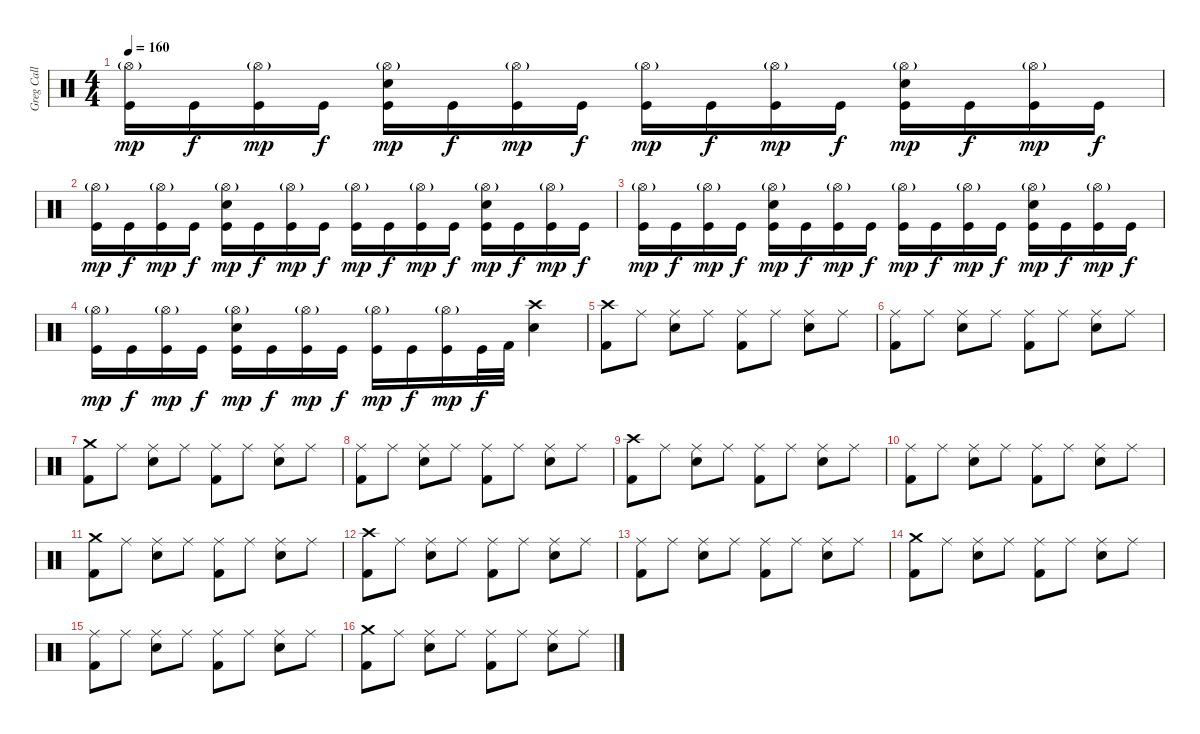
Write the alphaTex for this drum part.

\track ("Greg Call (Drums)" "Greg Call ") {instrument percussion}
\staff {score}
\articulation defaults
\ts (4 4)
\tempo 160
\clef neutral
\ks c
("Hi-Hat (open)"{g} "Kick (hit)").16{dy mp} "Kick (hit)".16{dy f} ("Hi-Hat (open)"{g} "Kick (hit)").16{dy mp} "Kick (hit)".16{dy f} ("Hi-Hat (open)"{g} "Electric Snare (hit)" "Kick (hit)").16{dy mp} "Kick (hit)".16{dy f} ("Hi-Hat (open)"{g} "Kick (hit)").16{dy mp} "Kick (hit)".16{dy f} ("Hi-Hat (open)"{g} "Kick (hit)").16{dy mp} "Kick (hit)".16{dy f} ("Hi-Hat (open)"{g} "Kick (hit)").16{dy mp} "Kick (hit)".16{dy f} ("Hi-Hat (open)"{g} "Electric Snare (hit)" "Kick (hit)").16{dy mp} "Kick (hit)".16{dy f} ("Hi-Hat (open)"{g} "Kick (hit)").16{dy mp} "Kick (hit)".16{dy f} |
("Hi-Hat (open)"{g} "Kick (hit)").16{dy mp} "Kick (hit)".16{dy f} ("Hi-Hat (open)"{g} "Kick (hit)").16{dy mp} "Kick (hit)".16{dy f} ("Hi-Hat (open)"{g} "Electric Snare (hit)" "Kick (hit)").16{dy mp} "Kick (hit)".16{dy f} ("Hi-Hat (open)"{g} "Kick (hit)").16{dy mp} "Kick (hit)".16{dy f} ("Hi-Hat (open)"{g} "Kick (hit)").16{dy mp} "Kick (hit)".16{dy f} ("Hi-Hat (open)"{g} "Kick (hit)").16{dy mp} "Kick (hit)".16{dy f} ("Hi-Hat (open)"{g} "Electric Snare (hit)" "Kick (hit)").16{dy mp} "Kick (hit)".16{dy f} ("Hi-Hat (open)"{g} "Kick (hit)").16{dy mp} "Kick (hit)".16{dy f} |
("Hi-Hat (open)"{g} "Kick (hit)").16{dy mp} "Kick (hit)".16{dy f} ("Hi-Hat (open)"{g} "Kick (hit)").16{dy mp} "Kick (hit)".16{dy f} ("Hi-Hat (open)"{g} "Electric Snare (hit)" "Kick (hit)").16{dy mp} "Kick (hit)".16{dy f} ("Hi-Hat (open)"{g} "Kick (hit)").16{dy mp} "Kick (hit)".16{dy f} ("Hi-Hat (open)"{g} "Kick (hit)").16{dy mp} "Kick (hit)".16{dy f} ("Hi-Hat (open)"{g} "Kick (hit)").16{dy mp} "Kick (hit)".16{dy f} ("Hi-Hat (open)"{g} "Electric Snare (hit)" "Kick (hit)").16{dy mp} "Kick (hit)".16{dy f} ("Hi-Hat (open)"{g} "Kick (hit)").16{dy mp} "Kick (hit)".16{dy f} |
("Hi-Hat (open)"{g} "Kick (hit)").16{dy mp} "Kick (hit)".16{dy f} ("Hi-Hat (open)"{g} "Kick (hit)").16{dy mp} "Kick (hit)".16{dy f} ("Hi-Hat (open)"{g} "Electric Snare (hit)" "Kick (hit)").16{dy mp} "Kick (hit)".16{dy f} ("Hi-Hat (open)"{g} "Kick (hit)").16{dy mp} "Kick (hit)".16{dy f} ("Hi-Hat (open)"{g} "Kick (hit)").16{dy mp} "Kick (hit)".16{dy f} ("Hi-Hat (open)"{g} "Kick (hit)").16{dy mp} "Kick (hit)".32{dy f} "Kick (hit) 2".32 ("Crash high (hit)" "Electric Snare (hit)").4 |
("Crash high (hit)" "Kick (hit) 2").8 "Ride (middle)".8 ("Ride (middle)" "Electric Snare (hit)").8 "Ride (middle)".8 ("Ride (middle)" "Kick (hit) 2").8 "Ride (middle)".8 ("Ride (middle)" "Electric Snare (hit)").8 "Ride (middle)".8 |
("Ride (middle)" "Kick (hit) 2").8 "Ride (middle)".8 ("Ride (middle)" "Electric Snare (hit)").8 "Ride (middle)".8 ("Ride (middle)" "Kick (hit) 2").8 "Ride (middle)".8 ("Ride (middle)" "Electric Snare (hit)").8 "Ride (middle)".8 |
("Crash medium (hit)" "Kick (hit) 2").8 "Ride (middle)".8 ("Ride (middle)" "Electric Snare (hit)").8 "Ride (middle)".8 ("Ride (middle)" "Kick (hit) 2").8 "Ride (middle)".8 ("Ride (middle)" "Electric Snare (hit)").8 "Ride (middle)".8 |
("Ride (middle)" "Kick (hit) 2").8 "Ride (middle)".8 ("Ride (middle)" "Electric Snare (hit)").8 "Ride (middle)".8 ("Ride (middle)" "Kick (hit) 2").8 "Ride (middle)".8 ("Ride (middle)" "Electric Snare (hit)").8 "Ride (middle)".8 |
("Crash high (hit)" "Kick (hit) 2").8 "Ride (middle)".8 ("Ride (middle)" "Electric Snare (hit)").8 "Ride (middle)".8 ("Ride (middle)" "Kick (hit) 2").8 "Ride (middle)".8 ("Ride (middle)" "Electric Snare (hit)").8 "Ride (middle)".8 |
("Ride (middle)" "Kick (hit) 2").8 "Ride (middle)".8 ("Ride (middle)" "Electric Snare (hit)").8 "Ride (middle)".8 ("Ride (middle)" "Kick (hit) 2").8 "Ride (middle)".8 ("Ride (middle)" "Electric Snare (hit)").8 "Ride (middle)".8 |
("Crash medium (hit)" "Kick (hit) 2").8 "Ride (middle)".8 ("Ride (middle)" "Electric Snare (hit)").8 "Ride (middle)".8 ("Ride (middle)" "Kick (hit) 2").8 "Ride (middle)".8 ("Ride (middle)" "Electric Snare (hit)").8 "Ride (middle)".8 |
("Crash high (hit)" "Kick (hit) 2").8 "Ride (middle)".8 ("Ride (middle)" "Electric Snare (hit)").8 "Ride (middle)".8 ("Ride (middle)" "Kick (hit) 2").8 "Ride (middle)".8 ("Ride (middle)" "Electric Snare (hit)").8 "Ride (middle)".8 |
("Ride (middle)" "Kick (hit) 2").8 "Ride (middle)".8 ("Ride (middle)" "Electric Snare (hit)").8 "Ride (middle)".8 ("Ride (middle)" "Kick (hit) 2").8 "Ride (middle)".8 ("Ride (middle)" "Electric Snare (hit)").8 "Ride (middle)".8 |
("Crash medium (hit)" "Kick (hit) 2").8 "Ride (middle)".8 ("Ride (middle)" "Electric Snare (hit)").8 "Ride (middle)".8 ("Ride (middle)" "Kick (hit) 2").8 "Ride (middle)".8 ("Ride (middle)" "Electric Snare (hit)").8 "Ride (middle)".8 |
("Ride (middle)" "Kick (hit) 2").8 "Ride (middle)".8 ("Ride (middle)" "Electric Snare (hit)").8 "Ride (middle)".8 ("Ride (middle)" "Kick (hit) 2").8 "Ride (middle)".8 ("Ride (middle)" "Electric Snare (hit)").8 "Ride (middle)".8 |
("Crash medium (hit)" "Kick (hit) 2").8 "Ride (middle)".8 ("Ride (middle)" "Electric Snare (hit)").8 "Ride (middle)".8 ("Ride (middle)" "Kick (hit) 2").8 "Ride (middle)".8 ("Ride (middle)" "Electric Snare (hit)").8 "Ride (middle)".8
